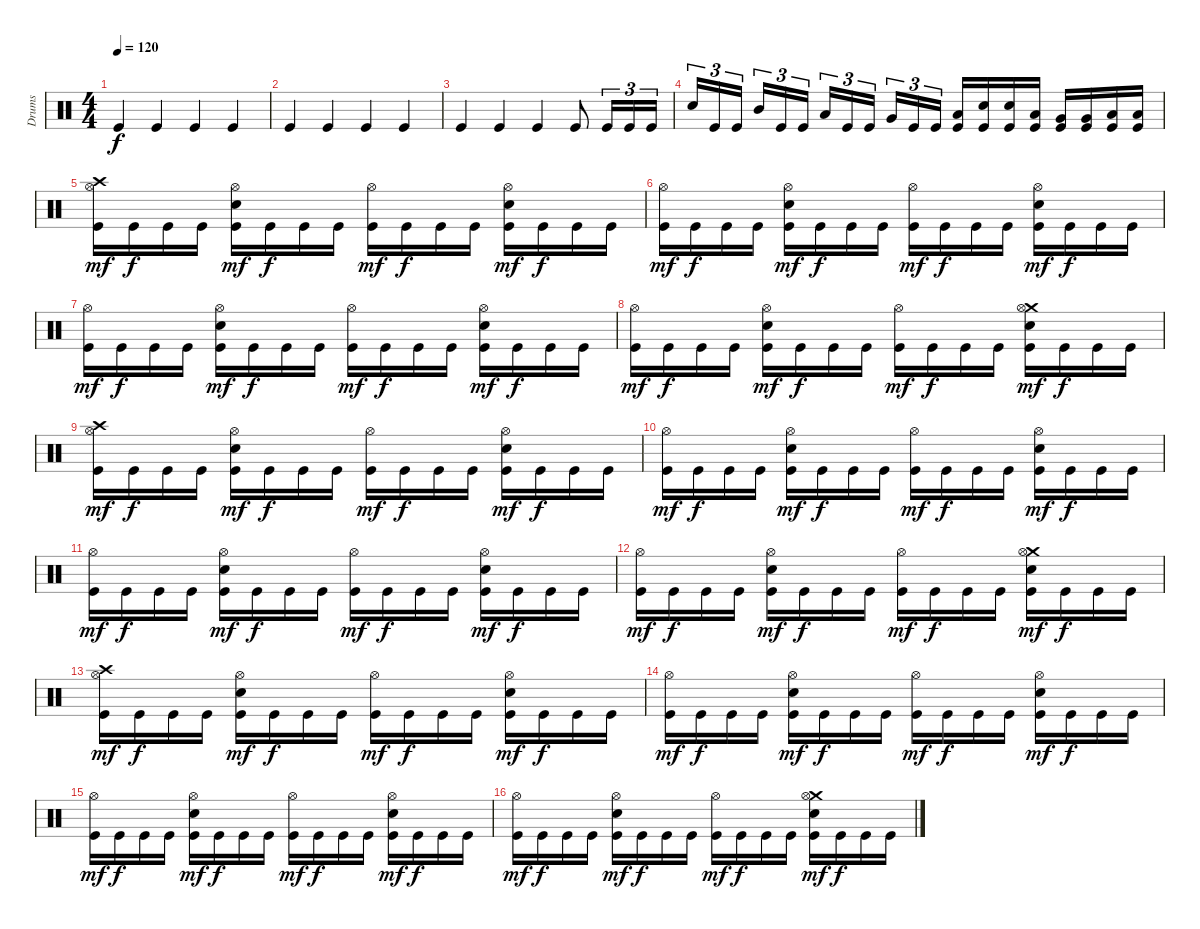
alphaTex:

\track ("Drums" "Drums") {instrument percussion}
\staff {score}
\articulation defaults
\ts (4 4)
\tempo 120
\clef neutral
\ks c "Kick (hit)".4{dy f} "Kick (hit)".4 "Kick (hit)".4 "Kick (hit)".4
|
"Kick (hit)".4 "Kick (hit)".4 "Kick (hit)".4 "Kick (hit)".4 |
"Kick (hit)".4 "Kick (hit)".4 "Kick (hit)".4 "Kick (hit)".8 "Kick (hit)".16{tu (3 2)} "Kick (hit)".16{tu (3 2)} "Kick (hit)".16{tu (3 2)} |
"Electric Snare (hit)".16{tu (3 2)} "Kick (hit)".16{tu (3 2)} "Kick (hit)".16{tu (3 2) beam splitsecondary} "Mid Tom (hit)".16{tu (3 2)} "Kick (hit)".16{tu (3 2)} "Kick (hit)".16{tu (3 2)} "Low Tom (hit)".16{tu (3 2)} "Kick (hit)".16{tu (3 2)} "Kick (hit)".16{tu (3 2) beam splitsecondary} "Very Low Tom (hit)".16{tu (3 2)} "Kick (hit)".16{tu (3 2)} "Kick (hit)".16{tu (3 2)} ("Low Floor Tom (hit)" "Kick (hit)").16 ("Electric Snare (hit)" "Kick (hit)").16 ("Electric Snare (hit)" "Kick (hit)").16 ("Low Tom (hit)" "Kick (hit)").16 ("Very Low Tom (hit)" "Kick (hit)").16 ("Very Low Tom (hit)" "Kick (hit)").16 ("Low Floor Tom (hit)" "Kick (hit)").16 ("Low Floor Tom (hit)" "Kick (hit)").16 |
("Crash high (hit)" "Hi-Hat (open)" "Kick (hit)").16{dy mf} "Kick (hit)".16{dy f} "Kick (hit)".16 "Kick (hit)".16 ("Hi-Hat (open)" "Electric Snare (hit)" "Kick (hit)").16{dy mf} "Kick (hit)".16{dy f} "Kick (hit)".16 "Kick (hit)".16 ("Hi-Hat (open)" "Kick (hit)").16{dy mf} "Kick (hit)".16{dy f} "Kick (hit)".16 "Kick (hit)".16 ("Hi-Hat (open)" "Electric Snare (hit)" "Kick (hit)").16{dy mf} "Kick (hit)".16{dy f} "Kick (hit)".16 "Kick (hit)".16 |
("Hi-Hat (open)" "Kick (hit)").16{dy mf} "Kick (hit)".16{dy f} "Kick (hit)".16 "Kick (hit)".16 ("Hi-Hat (open)" "Electric Snare (hit)" "Kick (hit)").16{dy mf} "Kick (hit)".16{dy f} "Kick (hit)".16 "Kick (hit)".16 ("Hi-Hat (open)" "Kick (hit)").16{dy mf} "Kick (hit)".16{dy f} "Kick (hit)".16 "Kick (hit)".16 ("Hi-Hat (open)" "Electric Snare (hit)" "Kick (hit)").16{dy mf} "Kick (hit)".16{dy f} "Kick (hit)".16 "Kick (hit)".16 |
("Hi-Hat (open)" "Kick (hit)").16{dy mf} "Kick (hit)".16{dy f} "Kick (hit)".16 "Kick (hit)".16 ("Hi-Hat (open)" "Electric Snare (hit)" "Kick (hit)").16{dy mf} "Kick (hit)".16{dy f} "Kick (hit)".16 "Kick (hit)".16 ("Hi-Hat (open)" "Kick (hit)").16{dy mf} "Kick (hit)".16{dy f} "Kick (hit)".16 "Kick (hit)".16 ("Hi-Hat (open)" "Electric Snare (hit)" "Kick (hit)").16{dy mf} "Kick (hit)".16{dy f} "Kick (hit)".16 "Kick (hit)".16 |
("Hi-Hat (open)" "Kick (hit)").16{dy mf} "Kick (hit)".16{dy f} "Kick (hit)".16 "Kick (hit)".16 ("Hi-Hat (open)" "Electric Snare (hit)" "Kick (hit)").16{dy mf} "Kick (hit)".16{dy f} "Kick (hit)".16 "Kick (hit)".16 ("Hi-Hat (open)" "Kick (hit)").16{dy mf} "Kick (hit)".16{dy f} "Kick (hit)".16 "Kick (hit)".16 ("Crash medium (hit)" "Hi-Hat (open)" "Electric Snare (hit)" "Kick (hit)").16{dy mf} "Kick (hit)".16{dy f} "Kick (hit)".16 "Kick (hit)".16 |
("Crash high (hit)" "Hi-Hat (open)" "Kick (hit)").16{dy mf} "Kick (hit)".16{dy f} "Kick (hit)".16 "Kick (hit)".16 ("Hi-Hat (open)" "Electric Snare (hit)" "Kick (hit)").16{dy mf} "Kick (hit)".16{dy f} "Kick (hit)".16 "Kick (hit)".16 ("Hi-Hat (open)" "Kick (hit)").16{dy mf} "Kick (hit)".16{dy f} "Kick (hit)".16 "Kick (hit)".16 ("Hi-Hat (open)" "Electric Snare (hit)" "Kick (hit)").16{dy mf} "Kick (hit)".16{dy f} "Kick (hit)".16 "Kick (hit)".16 |
("Hi-Hat (open)" "Kick (hit)").16{dy mf} "Kick (hit)".16{dy f} "Kick (hit)".16 "Kick (hit)".16 ("Hi-Hat (open)" "Electric Snare (hit)" "Kick (hit)").16{dy mf} "Kick (hit)".16{dy f} "Kick (hit)".16 "Kick (hit)".16 ("Hi-Hat (open)" "Kick (hit)").16{dy mf} "Kick (hit)".16{dy f} "Kick (hit)".16 "Kick (hit)".16 ("Hi-Hat (open)" "Electric Snare (hit)" "Kick (hit)").16{dy mf} "Kick (hit)".16{dy f} "Kick (hit)".16 "Kick (hit)".16 |
("Hi-Hat (open)" "Kick (hit)").16{dy mf} "Kick (hit)".16{dy f} "Kick (hit)".16 "Kick (hit)".16 ("Hi-Hat (open)" "Electric Snare (hit)" "Kick (hit)").16{dy mf} "Kick (hit)".16{dy f} "Kick (hit)".16 "Kick (hit)".16 ("Hi-Hat (open)" "Kick (hit)").16{dy mf} "Kick (hit)".16{dy f} "Kick (hit)".16 "Kick (hit)".16 ("Hi-Hat (open)" "Electric Snare (hit)" "Kick (hit)").16{dy mf} "Kick (hit)".16{dy f} "Kick (hit)".16 "Kick (hit)".16 |
("Hi-Hat (open)" "Kick (hit)").16{dy mf} "Kick (hit)".16{dy f} "Kick (hit)".16 "Kick (hit)".16 ("Hi-Hat (open)" "Electric Snare (hit)" "Kick (hit)").16{dy mf} "Kick (hit)".16{dy f} "Kick (hit)".16 "Kick (hit)".16 ("Hi-Hat (open)" "Kick (hit)").16{dy mf} "Kick (hit)".16{dy f} "Kick (hit)".16 "Kick (hit)".16 ("Crash medium (hit)" "Hi-Hat (open)" "Electric Snare (hit)" "Kick (hit)").16{dy mf} "Kick (hit)".16{dy f} "Kick (hit)".16 "Kick (hit)".16 |
("Crash high (hit)" "Hi-Hat (open)" "Kick (hit)").16{dy mf} "Kick (hit)".16{dy f} "Kick (hit)".16 "Kick (hit)".16 ("Hi-Hat (open)" "Electric Snare (hit)" "Kick (hit)").16{dy mf} "Kick (hit)".16{dy f} "Kick (hit)".16 "Kick (hit)".16 ("Hi-Hat (open)" "Kick (hit)").16{dy mf} "Kick (hit)".16{dy f} "Kick (hit)".16 "Kick (hit)".16 ("Hi-Hat (open)" "Electric Snare (hit)" "Kick (hit)").16{dy mf} "Kick (hit)".16{dy f} "Kick (hit)".16 "Kick (hit)".16 |
("Hi-Hat (open)" "Kick (hit)").16{dy mf} "Kick (hit)".16{dy f} "Kick (hit)".16 "Kick (hit)".16 ("Hi-Hat (open)" "Electric Snare (hit)" "Kick (hit)").16{dy mf} "Kick (hit)".16{dy f} "Kick (hit)".16 "Kick (hit)".16 ("Hi-Hat (open)" "Kick (hit)").16{dy mf} "Kick (hit)".16{dy f} "Kick (hit)".16 "Kick (hit)".16 ("Hi-Hat (open)" "Electric Snare (hit)" "Kick (hit)").16{dy mf} "Kick (hit)".16{dy f} "Kick (hit)".16 "Kick (hit)".16 |
("Hi-Hat (open)" "Kick (hit)").16{dy mf} "Kick (hit)".16{dy f} "Kick (hit)".16 "Kick (hit)".16 ("Hi-Hat (open)" "Electric Snare (hit)" "Kick (hit)").16{dy mf} "Kick (hit)".16{dy f} "Kick (hit)".16 "Kick (hit)".16 ("Hi-Hat (open)" "Kick (hit)").16{dy mf} "Kick (hit)".16{dy f} "Kick (hit)".16 "Kick (hit)".16 ("Hi-Hat (open)" "Electric Snare (hit)" "Kick (hit)").16{dy mf} "Kick (hit)".16{dy f} "Kick (hit)".16 "Kick (hit)".16 |
("Hi-Hat (open)" "Kick (hit)").16{dy mf} "Kick (hit)".16{dy f} "Kick (hit)".16 "Kick (hit)".16 ("Hi-Hat (open)" "Electric Snare (hit)" "Kick (hit)").16{dy mf} "Kick (hit)".16{dy f} "Kick (hit)".16 "Kick (hit)".16 ("Hi-Hat (open)" "Kick (hit)").16{dy mf} "Kick (hit)".16{dy f} "Kick (hit)".16 "Kick (hit)".16 ("Crash medium (hit)" "Hi-Hat (open)" "Electric Snare (hit)" "Kick (hit)").16{dy mf} "Kick (hit)".16{dy f} "Kick (hit)".16 "Kick (hit)".16
